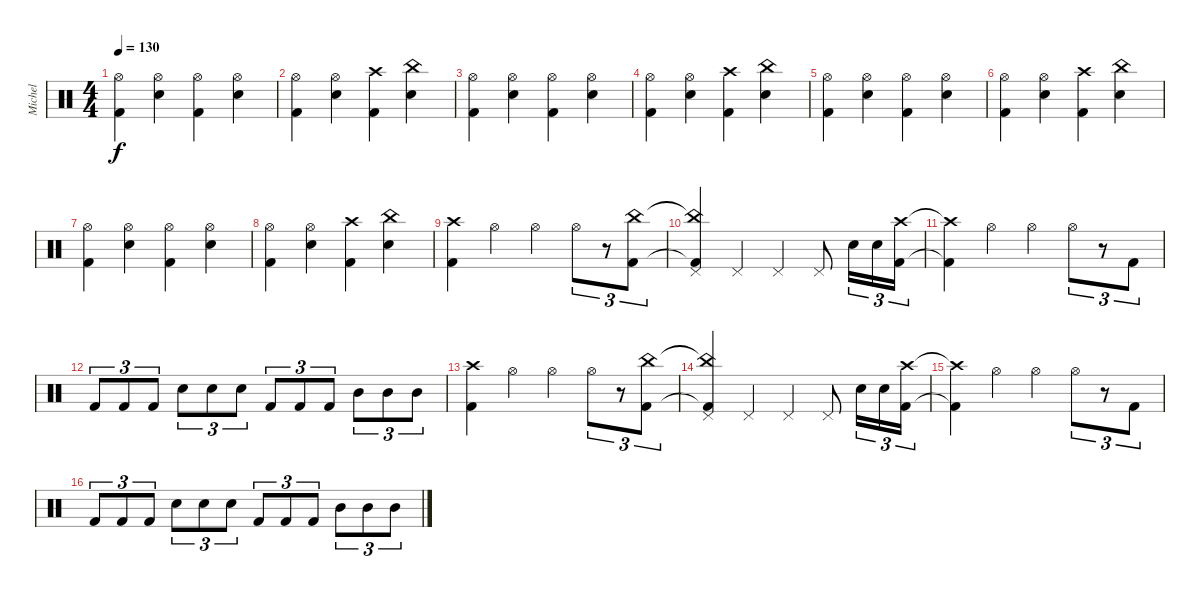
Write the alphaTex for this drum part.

\track ("Michel" "Michel") {instrument percussion}
\staff {score}
\articulation defaults
\ts (4 4)
\tempo 130
\clef neutral
\ks c
("Kick (hit) 2" "Hi-Hat (open)").4{dy f} ("Snare (hit) 2" "Hi-Hat (open)").4 ("Kick (hit) 2" "Hi-Hat (open)").4 ("Snare (hit) 2" "Hi-Hat (open)").4 |
("Kick (hit) 2" "Hi-Hat (open)").4 ("Snare (hit) 2" "Hi-Hat (open)").4 ("Crash high (hit)" "Kick (hit) 2").4 ("China (hit)" "Snare (hit) 2").4 |
("Kick (hit) 2" "Hi-Hat (open)").4 ("Snare (hit) 2" "Hi-Hat (open)").4 ("Kick (hit) 2" "Hi-Hat (open)").4 ("Snare (hit) 2" "Hi-Hat (open)").4 |
("Kick (hit) 2" "Hi-Hat (open)").4 ("Snare (hit) 2" "Hi-Hat (open)").4 ("Crash high (hit)" "Kick (hit) 2").4 ("China (hit)" "Snare (hit) 2").4 |
("Kick (hit) 2" "Hi-Hat (open)").4 ("Snare (hit) 2" "Hi-Hat (open)").4 ("Kick (hit) 2" "Hi-Hat (open)").4 ("Snare (hit) 2" "Hi-Hat (open)").4 |
("Kick (hit) 2" "Hi-Hat (open)").4 ("Snare (hit) 2" "Hi-Hat (open)").4 ("Crash high (hit)" "Kick (hit) 2").4 ("China (hit)" "Snare (hit) 2").4 |
("Kick (hit) 2" "Hi-Hat (open)").4 ("Snare (hit) 2" "Hi-Hat (open)").4 ("Kick (hit) 2" "Hi-Hat (open)").4 ("Snare (hit) 2" "Hi-Hat (open)").4 |
("Kick (hit) 2" "Hi-Hat (open)").4 ("Snare (hit) 2" "Hi-Hat (open)").4 ("Crash high (hit)" "Kick (hit) 2").4 ("China (hit)" "Snare (hit) 2").4 |
("Crash high (hit)" "Kick (hit) 2").4 "Hi-Hat (open)".4 "Hi-Hat (open)".4 "Hi-Hat (open)".8{tu (3 2)} r.8{tu (3 2)} ("China (hit)" "Kick (hit) 2").8{tu (3 2)} |
("China (hit)"{t} "Kick (hit) 2"{t} "Pedal Hi-Hat (hit)").4 "Pedal Hi-Hat (hit)".4 "Pedal Hi-Hat (hit)".4 "Pedal Hi-Hat (hit)".8 "Snare (hit) 2".16{tu (3 2)} "Snare (hit) 2".16{tu (3 2)} ("Crash high (hit)" "Kick (hit) 2").16{tu (3 2)} |
("Crash high (hit)"{t} "Kick (hit) 2"{t}).4 "Hi-Hat (open)".4 "Hi-Hat (open)".4 "Hi-Hat (open)".8{tu (3 2)} r.8{tu (3 2)} "Kick (hit) 2".8{tu (3 2)} |
"Kick (hit) 2".8{tu (3 2)} "Kick (hit) 2".8{tu (3 2)} "Kick (hit) 2".8{tu (3 2)} "Snare (hit) 2".8{tu (3 2)} "Snare (hit) 2".8{tu (3 2)} "Snare (hit) 2".8{tu (3 2)} "Kick (hit) 2".8{tu (3 2)} "Kick (hit) 2".8{tu (3 2)} "Kick (hit) 2".8{tu (3 2)} "Mid Tom (hit)".8{tu (3 2)} "Mid Tom (hit)".8{tu (3 2)} "Mid Tom (hit)".8{tu (3 2)} |
("Crash high (hit)" "Kick (hit) 2").4 "Hi-Hat (open)".4 "Hi-Hat (open)".4 "Hi-Hat (open)".8{tu (3 2)} r.8{tu (3 2)} ("China (hit)" "Kick (hit) 2").8{tu (3 2)} |
("China (hit)"{t} "Kick (hit) 2"{t} "Pedal Hi-Hat (hit)").4 "Pedal Hi-Hat (hit)".4 "Pedal Hi-Hat (hit)".4 "Pedal Hi-Hat (hit)".8 "Snare (hit) 2".16{tu (3 2)} "Snare (hit) 2".16{tu (3 2)} ("Crash high (hit)" "Kick (hit) 2").16{tu (3 2)} |
("Crash high (hit)"{t} "Kick (hit) 2"{t}).4 "Hi-Hat (open)".4 "Hi-Hat (open)".4 "Hi-Hat (open)".8{tu (3 2)} r.8{tu (3 2)} "Kick (hit) 2".8{tu (3 2)} |
"Kick (hit) 2".8{tu (3 2)} "Kick (hit) 2".8{tu (3 2)} "Kick (hit) 2".8{tu (3 2)} "Snare (hit) 2".8{tu (3 2)} "Snare (hit) 2".8{tu (3 2)} "Snare (hit) 2".8{tu (3 2)} "Kick (hit) 2".8{tu (3 2)} "Kick (hit) 2".8{tu (3 2)} "Kick (hit) 2".8{tu (3 2)} "Mid Tom (hit)".8{tu (3 2)} "Mid Tom (hit)".8{tu (3 2)} "Mid Tom (hit)".8{tu (3 2)}
